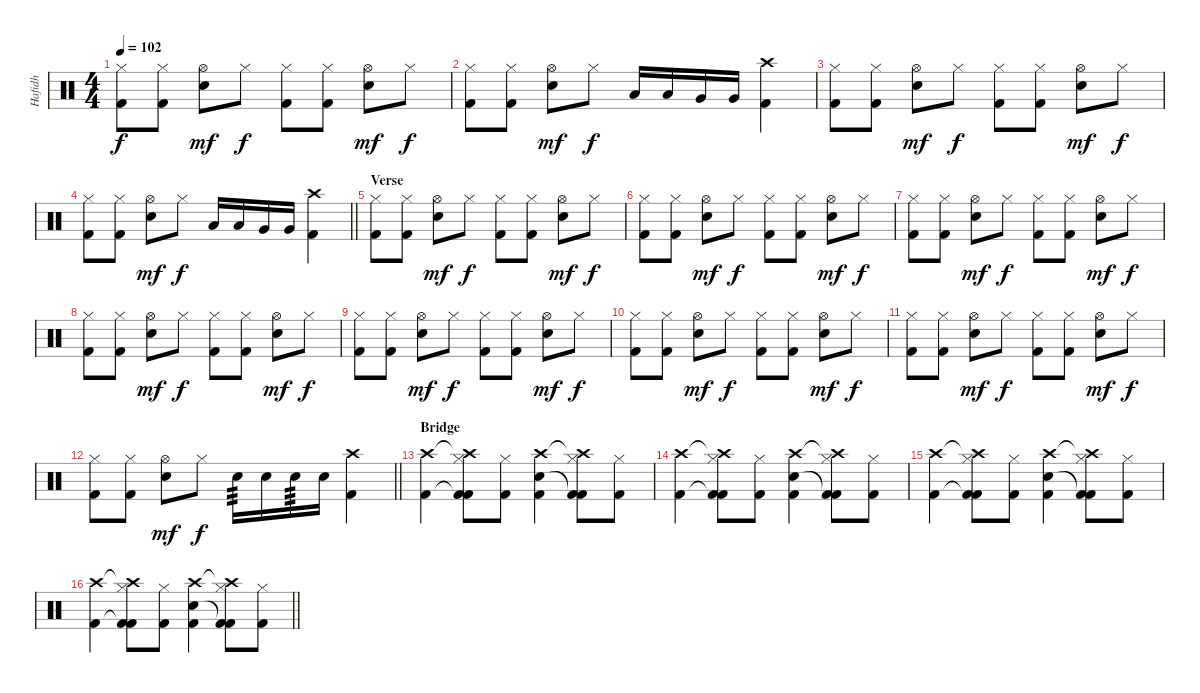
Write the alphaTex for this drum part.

\track ("Hafidh" "Hafidh") {instrument percussion}
\staff {score}
\articulation defaults
\ts (4 4)
\tempo 102
\clef neutral
\ks c
("Hi-Hat (closed)" "Kick (hit) 2").8{dy f} ("Hi-Hat (closed)" "Kick (hit) 2").8 ("Hi-Hat (open)" "Electric Snare (hit)").8{dy mf} "Hi-Hat (closed)".8{dy f} ("Hi-Hat (closed)" "Kick (hit) 2").8 ("Hi-Hat (closed)" "Kick (hit) 2").8 ("Hi-Hat (open)" "Electric Snare (hit)").8{dy mf} "Hi-Hat (closed)".8{dy f} |
("Hi-Hat (closed)" "Kick (hit) 2").8 ("Hi-Hat (closed)" "Kick (hit) 2").8 ("Hi-Hat (open)" "Electric Snare (hit)").8{dy mf} "Hi-Hat (closed)".8{dy f} "Low Tom (hit)".16 "Low Tom (hit)".16 "Very Low Tom (hit)".16 "Very Low Tom (hit)".16 ("Crash high (hit)" "Kick (hit) 2").4 |
("Hi-Hat (closed)" "Kick (hit) 2").8 ("Hi-Hat (closed)" "Kick (hit) 2").8 ("Hi-Hat (open)" "Electric Snare (hit)").8{dy mf} "Hi-Hat (closed)".8{dy f} ("Hi-Hat (closed)" "Kick (hit) 2").8 ("Hi-Hat (closed)" "Kick (hit) 2").8 ("Hi-Hat (open)" "Electric Snare (hit)").8{dy mf} "Hi-Hat (closed)".8{dy f} |
\barLineRight lightlight
("Hi-Hat (closed)" "Kick (hit) 2").8 ("Hi-Hat (closed)" "Kick (hit) 2").8 ("Hi-Hat (open)" "Electric Snare (hit)").8{dy mf} "Hi-Hat (closed)".8{dy f} "Low Tom (hit)".16 "Low Tom (hit)".16 "Very Low Tom (hit)".16 "Very Low Tom (hit)".16 ("Crash high (hit)" "Kick (hit) 2").4 |
\section ("" "Verse")
("Hi-Hat (closed)" "Kick (hit) 2").8 ("Hi-Hat (closed)" "Kick (hit) 2").8 ("Hi-Hat (open)" "Electric Snare (hit)").8{dy mf} "Hi-Hat (closed)".8{dy f} ("Hi-Hat (closed)" "Kick (hit) 2").8 ("Hi-Hat (closed)" "Kick (hit) 2").8 ("Hi-Hat (open)" "Electric Snare (hit)").8{dy mf} "Hi-Hat (closed)".8{dy f} |
("Hi-Hat (closed)" "Kick (hit) 2").8 ("Hi-Hat (closed)" "Kick (hit) 2").8 ("Hi-Hat (open)" "Electric Snare (hit)").8{dy mf} "Hi-Hat (closed)".8{dy f} ("Hi-Hat (closed)" "Kick (hit) 2").8 ("Hi-Hat (closed)" "Kick (hit) 2").8 ("Hi-Hat (open)" "Electric Snare (hit)").8{dy mf} "Hi-Hat (closed)".8{dy f} |
("Hi-Hat (closed)" "Kick (hit) 2").8 ("Hi-Hat (closed)" "Kick (hit) 2").8 ("Hi-Hat (open)" "Electric Snare (hit)").8{dy mf} "Hi-Hat (closed)".8{dy f} ("Hi-Hat (closed)" "Kick (hit) 2").8 ("Hi-Hat (closed)" "Kick (hit) 2").8 ("Hi-Hat (open)" "Electric Snare (hit)").8{dy mf} "Hi-Hat (closed)".8{dy f} |
("Hi-Hat (closed)" "Kick (hit) 2").8 ("Hi-Hat (closed)" "Kick (hit) 2").8 ("Hi-Hat (open)" "Electric Snare (hit)").8{dy mf} "Hi-Hat (closed)".8{dy f} ("Hi-Hat (closed)" "Kick (hit) 2").8 ("Hi-Hat (closed)" "Kick (hit) 2").8 ("Hi-Hat (open)" "Electric Snare (hit)").8{dy mf} "Hi-Hat (closed)".8{dy f} |
("Hi-Hat (closed)" "Kick (hit) 2").8 ("Hi-Hat (closed)" "Kick (hit) 2").8 ("Hi-Hat (open)" "Electric Snare (hit)").8{dy mf} "Hi-Hat (closed)".8{dy f} ("Hi-Hat (closed)" "Kick (hit) 2").8 ("Hi-Hat (closed)" "Kick (hit) 2").8 ("Hi-Hat (open)" "Electric Snare (hit)").8{dy mf} "Hi-Hat (closed)".8{dy f} |
("Hi-Hat (closed)" "Kick (hit) 2").8 ("Hi-Hat (closed)" "Kick (hit) 2").8 ("Hi-Hat (open)" "Electric Snare (hit)").8{dy mf} "Hi-Hat (closed)".8{dy f} ("Hi-Hat (closed)" "Kick (hit) 2").8 ("Hi-Hat (closed)" "Kick (hit) 2").8 ("Hi-Hat (open)" "Electric Snare (hit)").8{dy mf} "Hi-Hat (closed)".8{dy f} |
("Hi-Hat (closed)" "Kick (hit) 2").8 ("Hi-Hat (closed)" "Kick (hit) 2").8 ("Hi-Hat (open)" "Electric Snare (hit)").8{dy mf} "Hi-Hat (closed)".8{dy f} ("Hi-Hat (closed)" "Kick (hit) 2").8 ("Hi-Hat (closed)" "Kick (hit) 2").8 ("Hi-Hat (open)" "Electric Snare (hit)").8{dy mf} "Hi-Hat (closed)".8{dy f} |
\barLineRight lightlight
("Hi-Hat (closed)" "Kick (hit) 2").8 ("Hi-Hat (closed)" "Kick (hit) 2").8 ("Hi-Hat (open)" "Electric Snare (hit)").8{dy mf} "Hi-Hat (closed)".8{dy f} "Electric Snare (hit)".16{tp 3} "Electric Snare (hit)".16 "Electric Snare (hit)".16{tp 3} "Electric Snare (hit)".16 ("Crash high (hit)" "Kick (hit) 2").4 |
\section ("" "Bridge")
("Crash high (hit)" "Kick (hit) 2").4 ("Crash high (hit)"{t} "Kick (hit) 2"{t} "Hi-Hat (closed)" "Kick (hit) 2").8 ("Hi-Hat (closed)" "Kick (hit) 2").8 ("Crash high (hit)" "Electric Snare (hit)" "Kick (hit) 2").4 ("Crash high (hit)"{t} "Kick (hit) 2"{t} "Hi-Hat (closed)" "Kick (hit) 2").8 ("Hi-Hat (closed)" "Kick (hit) 2").8 |
("Crash high (hit)" "Kick (hit) 2").4 ("Crash high (hit)"{t} "Kick (hit) 2"{t} "Hi-Hat (closed)" "Kick (hit) 2").8 ("Hi-Hat (closed)" "Kick (hit) 2").8 ("Crash high (hit)" "Electric Snare (hit)" "Kick (hit) 2").4 ("Crash high (hit)"{t} "Kick (hit) 2"{t} "Hi-Hat (closed)" "Kick (hit) 2").8 ("Hi-Hat (closed)" "Kick (hit) 2").8 |
("Crash high (hit)" "Kick (hit) 2").4 ("Crash high (hit)"{t} "Kick (hit) 2"{t} "Hi-Hat (closed)" "Kick (hit) 2").8 ("Hi-Hat (closed)" "Kick (hit) 2").8 ("Crash high (hit)" "Electric Snare (hit)" "Kick (hit) 2").4 ("Crash high (hit)"{t} "Kick (hit) 2"{t} "Hi-Hat (closed)" "Kick (hit) 2").8 ("Hi-Hat (closed)" "Kick (hit) 2").8 |
\barLineRight lightlight
("Crash high (hit)" "Kick (hit) 2").4 ("Crash high (hit)"{t} "Kick (hit) 2"{t} "Hi-Hat (closed)" "Kick (hit) 2").8 ("Hi-Hat (closed)" "Kick (hit) 2").8 ("Crash high (hit)" "Electric Snare (hit)" "Kick (hit) 2").4 ("Crash high (hit)"{t} "Kick (hit) 2"{t} "Hi-Hat (closed)" "Kick (hit) 2").8 ("Hi-Hat (closed)" "Kick (hit) 2").8
